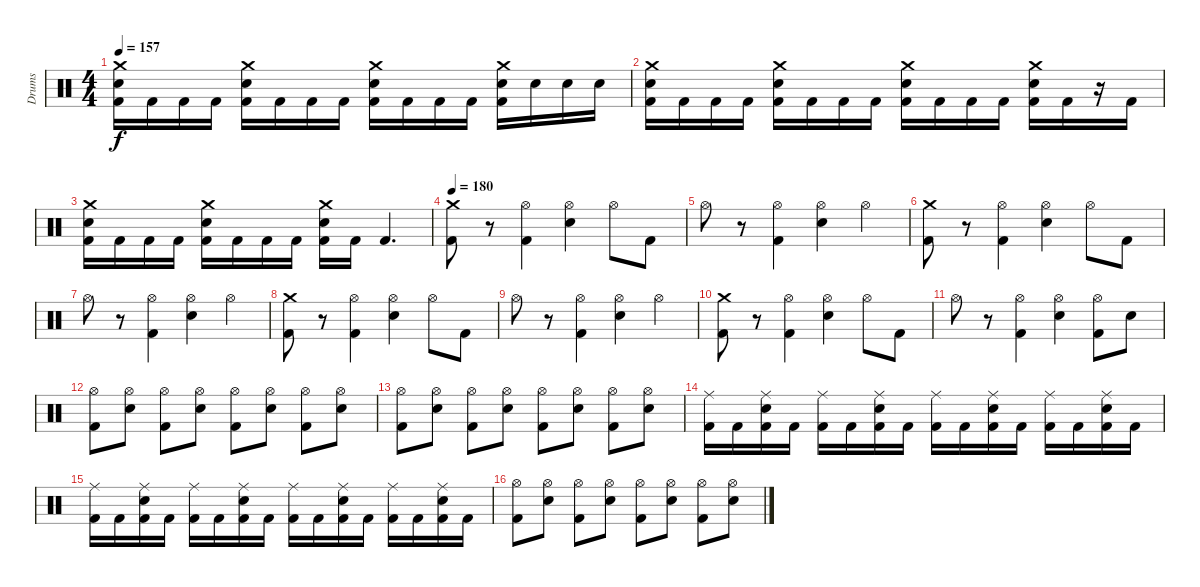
\track ("Drums" "Drums") {instrument percussion}
\staff {score}
\articulation defaults
\ts (4 4)
\tempo 157
\clef neutral
\ks c
("Crash medium (hit)" "Electric Snare (hit)" "Kick (hit) 2").16{dy f} "Kick (hit) 2".16 "Kick (hit) 2".16 "Kick (hit) 2".16 ("Crash medium (hit)" "Electric Snare (hit)" "Kick (hit) 2").16 "Kick (hit) 2".16 "Kick (hit) 2".16 "Kick (hit) 2".16 ("Crash medium (hit)" "Electric Snare (hit)" "Kick (hit) 2").16 "Kick (hit) 2".16 "Kick (hit) 2".16 "Kick (hit) 2".16 ("Crash medium (hit)" "Electric Snare (hit)" "Kick (hit) 2").16 "Electric Snare (hit)".16 "Electric Snare (hit)".16 "Electric Snare (hit)".16 |
("Crash medium (hit)" "Electric Snare (hit)" "Kick (hit) 2").16 "Kick (hit) 2".16 "Kick (hit) 2".16 "Kick (hit) 2".16 ("Crash medium (hit)" "Electric Snare (hit)" "Kick (hit) 2").16 "Kick (hit) 2".16 "Kick (hit) 2".16 "Kick (hit) 2".16 ("Crash medium (hit)" "Electric Snare (hit)" "Kick (hit) 2").16 "Kick (hit) 2".16 "Kick (hit) 2".16 "Kick (hit) 2".16 ("Crash medium (hit)" "Electric Snare (hit)" "Kick (hit) 2").16 "Kick (hit) 2".16 r.16 "Kick (hit) 2".16 |
("Crash medium (hit)" "Electric Snare (hit)" "Kick (hit) 2").16 "Kick (hit) 2".16 "Kick (hit) 2".16 "Kick (hit) 2".16 ("Crash medium (hit)" "Electric Snare (hit)" "Kick (hit) 2").16 "Kick (hit) 2".16 "Kick (hit) 2".16 "Kick (hit) 2".16 ("Crash medium (hit)" "Electric Snare (hit)" "Kick (hit) 2").16 "Kick (hit) 2".16 "Kick (hit) 2".4{d} |
\tempo 180
("Crash medium (hit)" "Kick (hit) 2").8 r.8 ("Hi-Hat (open)" "Kick (hit) 2").4 ("Hi-Hat (open)" "Electric Snare (hit)").4 "Hi-Hat (open)".8 "Kick (hit) 2".8 |
"Hi-Hat (open)".8 r.8 ("Hi-Hat (open)" "Kick (hit) 2").4 ("Hi-Hat (open)" "Electric Snare (hit)").4 "Hi-Hat (open)".4 |
("Crash medium (hit)" "Kick (hit) 2").8 r.8 ("Hi-Hat (open)" "Kick (hit) 2").4 ("Hi-Hat (open)" "Electric Snare (hit)").4 "Hi-Hat (open)".8 "Kick (hit) 2".8 |
"Hi-Hat (open)".8 r.8 ("Hi-Hat (open)" "Kick (hit) 2").4 ("Hi-Hat (open)" "Electric Snare (hit)").4 "Hi-Hat (open)".4 |
("Crash medium (hit)" "Kick (hit) 2").8 r.8 ("Hi-Hat (open)" "Kick (hit) 2").4 ("Hi-Hat (open)" "Electric Snare (hit)").4 "Hi-Hat (open)".8 "Kick (hit) 2".8 |
"Hi-Hat (open)".8 r.8 ("Hi-Hat (open)" "Kick (hit) 2").4 ("Hi-Hat (open)" "Electric Snare (hit)").4 "Hi-Hat (open)".4 |
("Crash medium (hit)" "Kick (hit) 2").8 r.8 ("Hi-Hat (open)" "Kick (hit) 2").4 ("Hi-Hat (open)" "Electric Snare (hit)").4 "Hi-Hat (open)".8 "Kick (hit) 2".8 |
"Hi-Hat (open)".8 r.8 ("Hi-Hat (open)" "Kick (hit) 2").4 ("Hi-Hat (open)" "Electric Snare (hit)").4 ("Hi-Hat (open)" "Kick (hit) 2").8 "Electric Snare (hit)".8 |
("Hi-Hat (open)" "Kick (hit) 2").8 ("Hi-Hat (open)" "Electric Snare (hit)").8 ("Hi-Hat (open)" "Kick (hit) 2").8 ("Hi-Hat (open)" "Electric Snare (hit)").8 ("Hi-Hat (open)" "Kick (hit) 2").8 ("Hi-Hat (open)" "Electric Snare (hit)").8 ("Hi-Hat (open)" "Kick (hit) 2").8 ("Hi-Hat (open)" "Electric Snare (hit)").8 |
("Hi-Hat (open)" "Kick (hit) 2").8 ("Hi-Hat (open)" "Electric Snare (hit)").8 ("Hi-Hat (open)" "Kick (hit) 2").8 ("Hi-Hat (open)" "Electric Snare (hit)").8 ("Hi-Hat (open)" "Kick (hit) 2").8 ("Hi-Hat (open)" "Electric Snare (hit)").8 ("Hi-Hat (open)" "Kick (hit) 2").8 ("Hi-Hat (open)" "Electric Snare (hit)").8 |
("Ride (middle)" "Kick (hit) 2").16 "Kick (hit) 2".16 ("Ride (middle)" "Electric Snare (hit)" "Kick (hit) 2").16 "Kick (hit) 2".16 ("Ride (middle)" "Kick (hit) 2").16 "Kick (hit) 2".16 ("Ride (middle)" "Electric Snare (hit)" "Kick (hit) 2").16 "Kick (hit) 2".16 ("Ride (middle)" "Kick (hit) 2").16 "Kick (hit) 2".16 ("Ride (middle)" "Electric Snare (hit)" "Kick (hit) 2").16 "Kick (hit) 2".16 ("Ride (middle)" "Kick (hit) 2").16 "Kick (hit) 2".16 ("Ride (middle)" "Electric Snare (hit)" "Kick (hit) 2").16 "Kick (hit) 2".16 |
("Ride (middle)" "Kick (hit) 2").16 "Kick (hit) 2".16 ("Ride (middle)" "Electric Snare (hit)" "Kick (hit) 2").16 "Kick (hit) 2".16 ("Ride (middle)" "Kick (hit) 2").16 "Kick (hit) 2".16 ("Ride (middle)" "Electric Snare (hit)" "Kick (hit) 2").16 "Kick (hit) 2".16 ("Ride (middle)" "Kick (hit) 2").16 "Kick (hit) 2".16 ("Ride (middle)" "Electric Snare (hit)" "Kick (hit) 2").16 "Kick (hit) 2".16 ("Ride (middle)" "Kick (hit) 2").16 "Kick (hit) 2".16 ("Ride (middle)" "Electric Snare (hit)" "Kick (hit) 2").16 "Kick (hit) 2".16 |
("Hi-Hat (open)" "Kick (hit) 2").8 ("Hi-Hat (open)" "Electric Snare (hit)").8 ("Hi-Hat (open)" "Kick (hit) 2").8 ("Hi-Hat (open)" "Electric Snare (hit)").8 ("Hi-Hat (open)" "Kick (hit) 2").8 ("Hi-Hat (open)" "Electric Snare (hit)").8 ("Hi-Hat (open)" "Kick (hit) 2").8 ("Hi-Hat (open)" "Electric Snare (hit)").8
